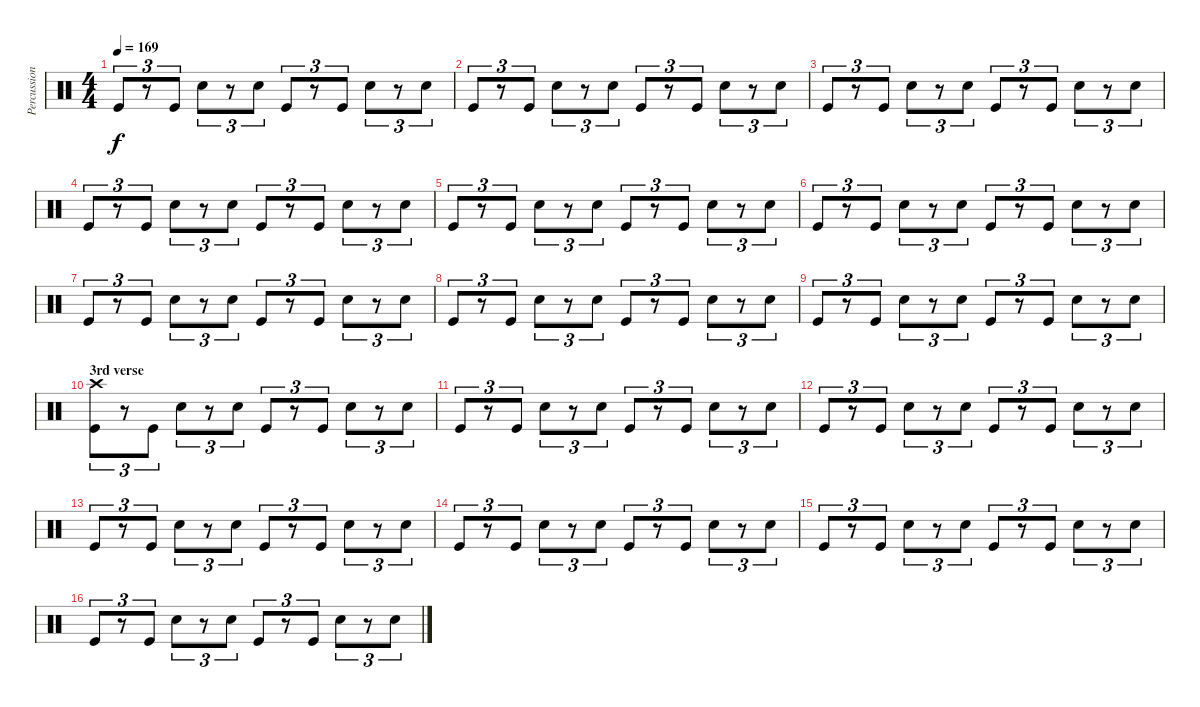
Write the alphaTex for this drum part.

\track ("Percussion" "Percussion") {instrument percussion}
\staff {score}
\articulation defaults
\ts (4 4)
\tempo 169
\clef neutral
\ks c "Kick (hit)".8{tu (3 2) dy f}
r.8{tu (3 2)} "Kick (hit)".8{tu (3 2)} "Snare (hit) 2".8{tu (3 2)} r.8{tu (3 2)} "Snare (hit) 2".8{tu (3 2)} "Kick (hit)".8{tu (3 2)} r.8{tu (3 2)} "Kick (hit)".8{tu (3 2)} "Snare (hit) 2".8{tu (3 2)} r.8{tu (3 2)} "Snare (hit) 2".8{tu (3 2)} |
"Kick (hit)".8{tu (3 2)} r.8{tu (3 2)} "Kick (hit)".8{tu (3 2)} "Snare (hit) 2".8{tu (3 2)} r.8{tu (3 2)} "Snare (hit) 2".8{tu (3 2)} "Kick (hit)".8{tu (3 2)} r.8{tu (3 2)} "Kick (hit)".8{tu (3 2)} "Snare (hit) 2".8{tu (3 2)} r.8{tu (3 2)} "Snare (hit) 2".8{tu (3 2)} |
"Kick (hit)".8{tu (3 2)} r.8{tu (3 2)} "Kick (hit)".8{tu (3 2)} "Snare (hit) 2".8{tu (3 2)} r.8{tu (3 2)} "Snare (hit) 2".8{tu (3 2)} "Kick (hit)".8{tu (3 2)} r.8{tu (3 2)} "Kick (hit)".8{tu (3 2)} "Snare (hit) 2".8{tu (3 2)} r.8{tu (3 2)} "Snare (hit) 2".8{tu (3 2)} |
"Kick (hit)".8{tu (3 2)} r.8{tu (3 2)} "Kick (hit)".8{tu (3 2)} "Snare (hit) 2".8{tu (3 2)} r.8{tu (3 2)} "Snare (hit) 2".8{tu (3 2)} "Kick (hit)".8{tu (3 2)} r.8{tu (3 2)} "Kick (hit)".8{tu (3 2)} "Snare (hit) 2".8{tu (3 2)} r.8{tu (3 2)} "Snare (hit) 2".8{tu (3 2)} |
"Kick (hit)".8{tu (3 2)} r.8{tu (3 2)} "Kick (hit)".8{tu (3 2)} "Snare (hit) 2".8{tu (3 2)} r.8{tu (3 2)} "Snare (hit) 2".8{tu (3 2)} "Kick (hit)".8{tu (3 2)} r.8{tu (3 2)} "Kick (hit)".8{tu (3 2)} "Snare (hit) 2".8{tu (3 2)} r.8{tu (3 2)} "Snare (hit) 2".8{tu (3 2)} |
"Kick (hit)".8{tu (3 2)} r.8{tu (3 2)} "Kick (hit)".8{tu (3 2)} "Snare (hit) 2".8{tu (3 2)} r.8{tu (3 2)} "Snare (hit) 2".8{tu (3 2)} "Kick (hit)".8{tu (3 2)} r.8{tu (3 2)} "Kick (hit)".8{tu (3 2)} "Snare (hit) 2".8{tu (3 2)} r.8{tu (3 2)} "Snare (hit) 2".8{tu (3 2)} |
"Kick (hit)".8{tu (3 2)} r.8{tu (3 2)} "Kick (hit)".8{tu (3 2)} "Snare (hit) 2".8{tu (3 2)} r.8{tu (3 2)} "Snare (hit) 2".8{tu (3 2)} "Kick (hit)".8{tu (3 2)} r.8{tu (3 2)} "Kick (hit)".8{tu (3 2)} "Snare (hit) 2".8{tu (3 2)} r.8{tu (3 2)} "Snare (hit) 2".8{tu (3 2)} |
"Kick (hit)".8{tu (3 2)} r.8{tu (3 2)} "Kick (hit)".8{tu (3 2)} "Snare (hit) 2".8{tu (3 2)} r.8{tu (3 2)} "Snare (hit) 2".8{tu (3 2)} "Kick (hit)".8{tu (3 2)} r.8{tu (3 2)} "Kick (hit)".8{tu (3 2)} "Snare (hit) 2".8{tu (3 2)} r.8{tu (3 2)} "Snare (hit) 2".8{tu (3 2)} |
"Kick (hit)".8{tu (3 2)} r.8{tu (3 2)} "Kick (hit)".8{tu (3 2)} "Snare (hit) 2".8{tu (3 2)} r.8{tu (3 2)} "Snare (hit) 2".8{tu (3 2)} "Kick (hit)".8{tu (3 2)} r.8{tu (3 2)} "Kick (hit)".8{tu (3 2)} "Snare (hit) 2".8{tu (3 2)} r.8{tu (3 2)} "Snare (hit) 2".8{tu (3 2)} |
\section ("" "3rd verse")
("Crash high (hit)" "Kick (hit)").8{tu (3 2)} r.8{tu (3 2)} "Kick (hit)".8{tu (3 2)} "Snare (hit) 2".8{tu (3 2)} r.8{tu (3 2)} "Snare (hit) 2".8{tu (3 2)} "Kick (hit)".8{tu (3 2)} r.8{tu (3 2)} "Kick (hit)".8{tu (3 2)} "Snare (hit) 2".8{tu (3 2)} r.8{tu (3 2)} "Snare (hit) 2".8{tu (3 2)} |
"Kick (hit)".8{tu (3 2)} r.8{tu (3 2)} "Kick (hit)".8{tu (3 2)} "Snare (hit) 2".8{tu (3 2)} r.8{tu (3 2)} "Snare (hit) 2".8{tu (3 2)} "Kick (hit)".8{tu (3 2)} r.8{tu (3 2)} "Kick (hit)".8{tu (3 2)} "Snare (hit) 2".8{tu (3 2)} r.8{tu (3 2)} "Snare (hit) 2".8{tu (3 2)} |
"Kick (hit)".8{tu (3 2)} r.8{tu (3 2)} "Kick (hit)".8{tu (3 2)} "Snare (hit) 2".8{tu (3 2)} r.8{tu (3 2)} "Snare (hit) 2".8{tu (3 2)} "Kick (hit)".8{tu (3 2)} r.8{tu (3 2)} "Kick (hit)".8{tu (3 2)} "Snare (hit) 2".8{tu (3 2)} r.8{tu (3 2)} "Snare (hit) 2".8{tu (3 2)} |
"Kick (hit)".8{tu (3 2)} r.8{tu (3 2)} "Kick (hit)".8{tu (3 2)} "Snare (hit) 2".8{tu (3 2)} r.8{tu (3 2)} "Snare (hit) 2".8{tu (3 2)} "Kick (hit)".8{tu (3 2)} r.8{tu (3 2)} "Kick (hit)".8{tu (3 2)} "Snare (hit) 2".8{tu (3 2)} r.8{tu (3 2)} "Snare (hit) 2".8{tu (3 2)} |
"Kick (hit)".8{tu (3 2)} r.8{tu (3 2)} "Kick (hit)".8{tu (3 2)} "Snare (hit) 2".8{tu (3 2)} r.8{tu (3 2)} "Snare (hit) 2".8{tu (3 2)} "Kick (hit)".8{tu (3 2)} r.8{tu (3 2)} "Kick (hit)".8{tu (3 2)} "Snare (hit) 2".8{tu (3 2)} r.8{tu (3 2)} "Snare (hit) 2".8{tu (3 2)} |
"Kick (hit)".8{tu (3 2)} r.8{tu (3 2)} "Kick (hit)".8{tu (3 2)} "Snare (hit) 2".8{tu (3 2)} r.8{tu (3 2)} "Snare (hit) 2".8{tu (3 2)} "Kick (hit)".8{tu (3 2)} r.8{tu (3 2)} "Kick (hit)".8{tu (3 2)} "Snare (hit) 2".8{tu (3 2)} r.8{tu (3 2)} "Snare (hit) 2".8{tu (3 2)} |
"Kick (hit)".8{tu (3 2)} r.8{tu (3 2)} "Kick (hit)".8{tu (3 2)} "Snare (hit) 2".8{tu (3 2)} r.8{tu (3 2)} "Snare (hit) 2".8{tu (3 2)} "Kick (hit)".8{tu (3 2)} r.8{tu (3 2)} "Kick (hit)".8{tu (3 2)} "Snare (hit) 2".8{tu (3 2)} r.8{tu (3 2)} "Snare (hit) 2".8{tu (3 2)}
